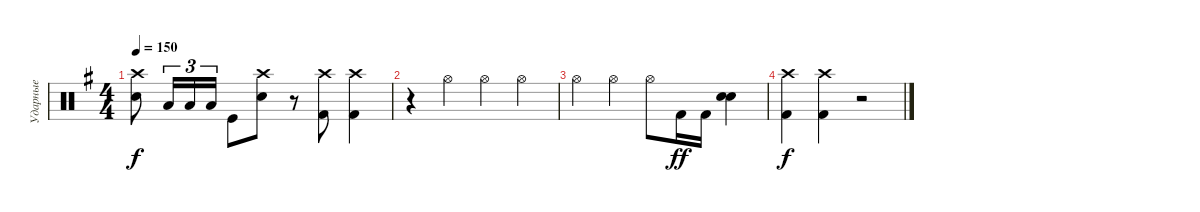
\track ("Ударные" "Ударные") {instrument percussion}
\staff {score}
\articulation defaults
\ts (4 4)
\tempo 150
\clef neutral
\ks eminor
("Crash high (hit)" "Snare (hit) 2").8{dy f} "Low Tom (hit)".16{tu (3 2)} "Low Tom (hit)".16{tu (3 2)} "Low Tom (hit)".16{tu (3 2)} "Kick (hit)".8 ("Snare (hit) 2" "Crash high (hit)").8 r.8 ("Kick (hit) 2" "Crash high (hit)").8 ("Kick (hit) 2" "Crash high (hit)").4 |
r.4 "Hi-Hat (open)".4 "Hi-Hat (open)".4 "Hi-Hat (open)".4 |
"Hi-Hat (open)".4 "Hi-Hat (open)".4 "Hi-Hat (open)".8 "Kick (hit) 2".16{dy ff} "Kick (hit) 2".16 ("Snare (hit) 2" "Snare (hit) 2").4{bd 240} |
("Kick (hit) 2" "Crash high (hit)").4{dy f} ("Kick (hit) 2" "Crash high (hit)").4 r.2
